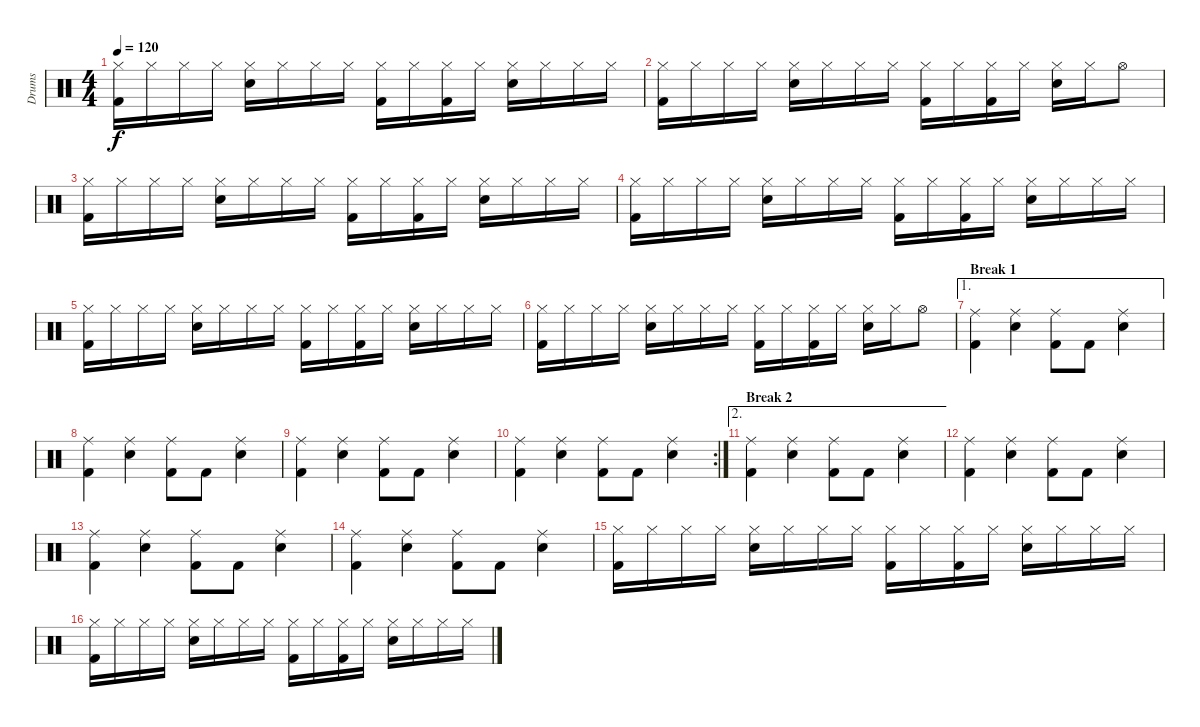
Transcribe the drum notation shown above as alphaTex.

\track ("Drums" "Drums") {instrument percussion}
\staff {score}
\articulation defaults
\ts (4 4)
\tempo 120
\clef neutral
\ks c
("Hi-Hat (closed)" "Kick (hit) 2").16{dy f} "Hi-Hat (closed)".16 "Hi-Hat (closed)".16 "Hi-Hat (closed)".16 ("Hi-Hat (closed)" "Snare (hit) 2").16 "Hi-Hat (closed)".16 "Hi-Hat (closed)".16 "Hi-Hat (closed)".16 ("Hi-Hat (closed)" "Kick (hit) 2").16 "Hi-Hat (closed)".16 ("Hi-Hat (closed)" "Kick (hit) 2").16 "Hi-Hat (closed)".16 ("Hi-Hat (closed)" "Snare (hit) 2").16 "Hi-Hat (closed)".16 "Hi-Hat (closed)".16 "Hi-Hat (closed)".16 |
("Hi-Hat (closed)" "Kick (hit) 2").16 "Hi-Hat (closed)".16 "Hi-Hat (closed)".16 "Hi-Hat (closed)".16 ("Hi-Hat (closed)" "Snare (hit) 2").16 "Hi-Hat (closed)".16 "Hi-Hat (closed)".16 "Hi-Hat (closed)".16 ("Hi-Hat (closed)" "Kick (hit) 2").16 "Hi-Hat (closed)".16 ("Hi-Hat (closed)" "Kick (hit) 2").16 "Hi-Hat (closed)".16 ("Hi-Hat (closed)" "Snare (hit) 2").16 "Hi-Hat (closed)".16 "Hi-Hat (open)".8 |
("Hi-Hat (closed)" "Kick (hit) 2").16 "Hi-Hat (closed)".16 "Hi-Hat (closed)".16 "Hi-Hat (closed)".16 ("Hi-Hat (closed)" "Snare (hit) 2").16 "Hi-Hat (closed)".16 "Hi-Hat (closed)".16 "Hi-Hat (closed)".16 ("Hi-Hat (closed)" "Kick (hit) 2").16 "Hi-Hat (closed)".16 ("Hi-Hat (closed)" "Kick (hit) 2").16 "Hi-Hat (closed)".16 ("Hi-Hat (closed)" "Snare (hit) 2").16 "Hi-Hat (closed)".16 "Hi-Hat (closed)".16 "Hi-Hat (closed)".16 |
("Hi-Hat (closed)" "Kick (hit) 2").16 "Hi-Hat (closed)".16 "Hi-Hat (closed)".16 "Hi-Hat (closed)".16 ("Hi-Hat (closed)" "Snare (hit) 2").16 "Hi-Hat (closed)".16 "Hi-Hat (closed)".16 "Hi-Hat (closed)".16 ("Hi-Hat (closed)" "Kick (hit) 2").16 "Hi-Hat (closed)".16 ("Hi-Hat (closed)" "Kick (hit) 2").16 "Hi-Hat (closed)".16 ("Hi-Hat (closed)" "Snare (hit) 2").16 "Hi-Hat (closed)".16 "Hi-Hat (closed)".16 "Hi-Hat (closed)".16 |
("Hi-Hat (closed)" "Kick (hit) 2").16 "Hi-Hat (closed)".16 "Hi-Hat (closed)".16 "Hi-Hat (closed)".16 ("Hi-Hat (closed)" "Snare (hit) 2").16 "Hi-Hat (closed)".16 "Hi-Hat (closed)".16 "Hi-Hat (closed)".16 ("Hi-Hat (closed)" "Kick (hit) 2").16 "Hi-Hat (closed)".16 ("Hi-Hat (closed)" "Kick (hit) 2").16 "Hi-Hat (closed)".16 ("Hi-Hat (closed)" "Snare (hit) 2").16 "Hi-Hat (closed)".16 "Hi-Hat (closed)".16 "Hi-Hat (closed)".16 |
("Hi-Hat (closed)" "Kick (hit) 2").16 "Hi-Hat (closed)".16 "Hi-Hat (closed)".16 "Hi-Hat (closed)".16 ("Hi-Hat (closed)" "Snare (hit) 2").16 "Hi-Hat (closed)".16 "Hi-Hat (closed)".16 "Hi-Hat (closed)".16 ("Hi-Hat (closed)" "Kick (hit) 2").16 "Hi-Hat (closed)".16 ("Hi-Hat (closed)" "Kick (hit) 2").16 "Hi-Hat (closed)".16 ("Hi-Hat (closed)" "Snare (hit) 2").16 "Hi-Hat (closed)".16 "Hi-Hat (open)".8 |
\ae 1
\section ("" "Break 1")
("Ride (middle)" "Kick (hit) 2").4 ("Ride (middle)" "Snare (hit) 2").4 ("Ride (middle)" "Kick (hit) 2").8 "Kick (hit) 2".8 ("Ride (middle)" "Snare (hit) 2").4 |
("Ride (middle)" "Kick (hit) 2").4 ("Ride (middle)" "Snare (hit) 2").4 ("Ride (middle)" "Kick (hit) 2").8 "Kick (hit) 2".8 ("Ride (middle)" "Snare (hit) 2").4 |
("Ride (middle)" "Kick (hit) 2").4 ("Ride (middle)" "Snare (hit) 2").4 ("Ride (middle)" "Kick (hit) 2").8 "Kick (hit) 2".8 ("Ride (middle)" "Snare (hit) 2").4 |
\rc 2
("Ride (middle)" "Kick (hit) 2").4 ("Ride (middle)" "Snare (hit) 2").4 ("Ride (middle)" "Kick (hit) 2").8 "Kick (hit) 2".8 ("Ride (middle)" "Snare (hit) 2").4 |
\ae 2
\section ("" "Break 2")
("Ride (middle)" "Kick (hit) 2").4 ("Ride (middle)" "Snare (hit) 2").4 ("Ride (middle)" "Kick (hit) 2").8 "Kick (hit) 2".8 ("Ride (middle)" "Snare (hit) 2").4 |
("Ride (middle)" "Kick (hit) 2").4 ("Ride (middle)" "Snare (hit) 2").4 ("Ride (middle)" "Kick (hit) 2").8 "Kick (hit) 2".8 ("Ride (middle)" "Snare (hit) 2").4 |
("Ride (middle)" "Kick (hit) 2").4 ("Ride (middle)" "Snare (hit) 2").4 ("Ride (middle)" "Kick (hit) 2").8 "Kick (hit) 2".8 ("Ride (middle)" "Snare (hit) 2").4 |
("Ride (middle)" "Kick (hit) 2").4 ("Ride (middle)" "Snare (hit) 2").4 ("Ride (middle)" "Kick (hit) 2").8 "Kick (hit) 2".8 ("Ride (middle)" "Snare (hit) 2").4 |
("Hi-Hat (closed)" "Kick (hit) 2").16 "Hi-Hat (closed)".16 "Hi-Hat (closed)".16 "Hi-Hat (closed)".16 ("Hi-Hat (closed)" "Snare (hit) 2").16 "Hi-Hat (closed)".16 "Hi-Hat (closed)".16 "Hi-Hat (closed)".16 ("Hi-Hat (closed)" "Kick (hit) 2").16 "Hi-Hat (closed)".16 ("Hi-Hat (closed)" "Kick (hit) 2").16 "Hi-Hat (closed)".16 ("Hi-Hat (closed)" "Snare (hit) 2").16 "Hi-Hat (closed)".16 "Hi-Hat (closed)".16 "Hi-Hat (closed)".16 |
("Hi-Hat (closed)" "Kick (hit) 2").16 "Hi-Hat (closed)".16 "Hi-Hat (closed)".16 "Hi-Hat (closed)".16 ("Hi-Hat (closed)" "Snare (hit) 2").16 "Hi-Hat (closed)".16 "Hi-Hat (closed)".16 "Hi-Hat (closed)".16 ("Hi-Hat (closed)" "Kick (hit) 2").16 "Hi-Hat (closed)".16 ("Hi-Hat (closed)" "Kick (hit) 2").16 "Hi-Hat (closed)".16 ("Hi-Hat (closed)" "Snare (hit) 2").16 "Hi-Hat (closed)".16 "Hi-Hat (closed)".16 "Hi-Hat (closed)".16
